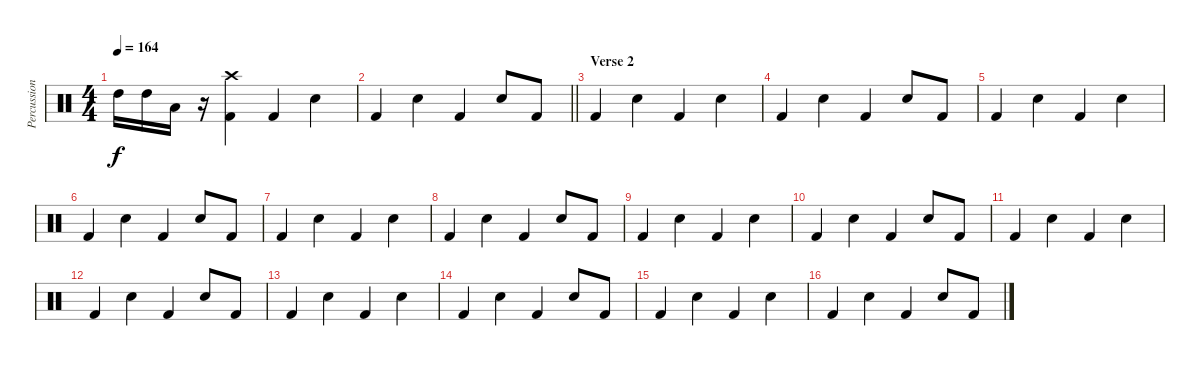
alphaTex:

\track ("Percussions" "Percussion") {instrument percussion}
\staff {score}
\articulation defaults
\ts (4 4)
\tempo 164
\clef neutral
\ks c "High Tom (hit)".16{dy f} "High Tom (hit)".16 "Low Tom (hit)".16
r.16 ("Crash high (hit)" "Kick (hit) 2").4 "Kick (hit) 2".4 "Snare (hit) 2".4 |
\barLineRight lightlight "Kick (hit) 2".4 "Snare (hit) 2".4 "Kick (hit) 2".4 "Snare (hit) 2".8 "Kick (hit) 2".8
|
\section ("" "Verse 2")
"Kick (hit) 2".4 "Snare (hit) 2".4 "Kick (hit) 2".4 "Snare (hit) 2".4 |
"Kick (hit) 2".4 "Snare (hit) 2".4 "Kick (hit) 2".4 "Snare (hit) 2".8 "Kick (hit) 2".8 |
"Kick (hit) 2".4 "Snare (hit) 2".4 "Kick (hit) 2".4 "Snare (hit) 2".4 |
"Kick (hit) 2".4 "Snare (hit) 2".4 "Kick (hit) 2".4 "Snare (hit) 2".8 "Kick (hit) 2".8 |
"Kick (hit) 2".4 "Snare (hit) 2".4 "Kick (hit) 2".4 "Snare (hit) 2".4 |
"Kick (hit) 2".4 "Snare (hit) 2".4 "Kick (hit) 2".4 "Snare (hit) 2".8 "Kick (hit) 2".8 |
"Kick (hit) 2".4 "Snare (hit) 2".4 "Kick (hit) 2".4 "Snare (hit) 2".4 |
"Kick (hit) 2".4 "Snare (hit) 2".4 "Kick (hit) 2".4 "Snare (hit) 2".8 "Kick (hit) 2".8 |
"Kick (hit) 2".4 "Snare (hit) 2".4 "Kick (hit) 2".4 "Snare (hit) 2".4 |
"Kick (hit) 2".4 "Snare (hit) 2".4 "Kick (hit) 2".4 "Snare (hit) 2".8 "Kick (hit) 2".8 |
"Kick (hit) 2".4 "Snare (hit) 2".4 "Kick (hit) 2".4 "Snare (hit) 2".4 |
"Kick (hit) 2".4 "Snare (hit) 2".4 "Kick (hit) 2".4 "Snare (hit) 2".8 "Kick (hit) 2".8 |
"Kick (hit) 2".4 "Snare (hit) 2".4 "Kick (hit) 2".4 "Snare (hit) 2".4 |
"Kick (hit) 2".4 "Snare (hit) 2".4 "Kick (hit) 2".4 "Snare (hit) 2".8 "Kick (hit) 2".8
